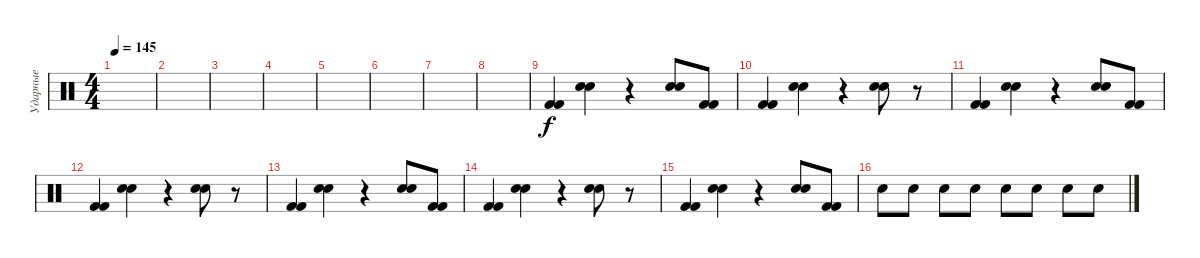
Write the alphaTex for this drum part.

\track ("Ударные" "Ударные") {instrument percussion}
\staff {score}
\articulation defaults
\ts (4 4)
\tempo 145
\clef neutral
\ks c
|
|
|
|
|
|
|
|
("Kick (hit) 2" "Kick (hit) 2").4 ("Electric Snare (hit)" "Hand Clap (hit)").4 r.4 ("Electric Snare (hit)" "Hand Clap (hit)").8 ("Kick (hit) 2" "Kick (hit) 2").8 |
("Kick (hit) 2" "Kick (hit) 2").4 ("Electric Snare (hit)" "Hand Clap (hit)").4 r.4 ("Electric Snare (hit)" "Hand Clap (hit)").8 r.8 |
("Kick (hit) 2" "Kick (hit) 2").4 ("Electric Snare (hit)" "Hand Clap (hit)").4 r.4 ("Electric Snare (hit)" "Hand Clap (hit)").8 ("Kick (hit) 2" "Kick (hit) 2").8 |
("Kick (hit) 2" "Kick (hit) 2").4 ("Electric Snare (hit)" "Hand Clap (hit)").4 r.4 ("Electric Snare (hit)" "Hand Clap (hit)").8 r.8 |
("Kick (hit) 2" "Kick (hit) 2").4 ("Electric Snare (hit)" "Hand Clap (hit)").4 r.4 ("Electric Snare (hit)" "Hand Clap (hit)").8 ("Kick (hit) 2" "Kick (hit) 2").8 |
("Kick (hit) 2" "Kick (hit) 2").4 ("Electric Snare (hit)" "Hand Clap (hit)").4 r.4 ("Electric Snare (hit)" "Hand Clap (hit)").8 r.8 |
("Kick (hit) 2" "Kick (hit) 2").4 ("Electric Snare (hit)" "Hand Clap (hit)").4 r.4 ("Electric Snare (hit)" "Hand Clap (hit)").8 ("Kick (hit) 2" "Kick (hit) 2").8 |
"Electric Snare (hit)".8 "Electric Snare (hit)".8 "Electric Snare (hit)".8 "Electric Snare (hit)".8 "Electric Snare (hit)".8 "Electric Snare (hit)".8 "Electric Snare (hit)".8 "Electric Snare (hit)".8
